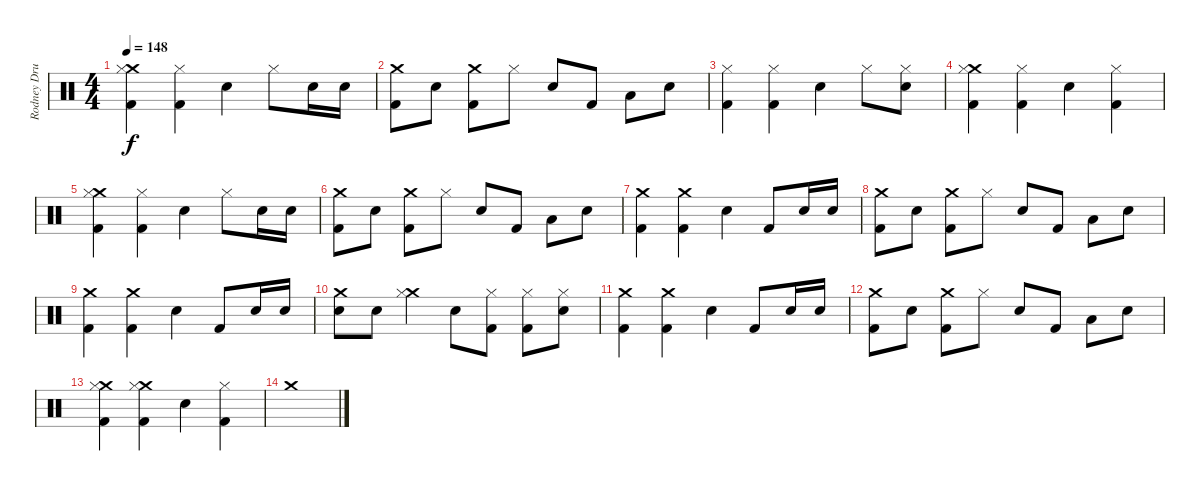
\track ("Rodney Drums" "Rodney Dru") {instrument percussion}
\staff {score}
\articulation defaults
\ts (4 4)
\tempo 148
\clef neutral
\ks c
("Crash medium (hit)" "Hi-Hat (closed)" "Kick (hit) 2").4{dy f} ("Hi-Hat (closed)" "Kick (hit) 2").4 "Electric Snare (hit)".4 "Hi-Hat (closed)".8 "Electric Snare (hit)".16 "Electric Snare (hit)".16 |
("Crash medium (hit)" "Kick (hit) 2").8 "Electric Snare (hit)".8 ("Crash medium (hit)" "Kick (hit) 2").8 "Hi-Hat (closed)".8 "Electric Snare (hit)".8 "Kick (hit) 2".8 "Low Tom (hit)".8 "Electric Snare (hit)".8 |
("Hi-Hat (closed)" "Kick (hit) 2").4 ("Hi-Hat (closed)" "Kick (hit) 2").4 "Electric Snare (hit)".4 "Hi-Hat (closed)".8 ("Hi-Hat (closed)" "Electric Snare (hit)").8 |
("Crash medium (hit)" "Hi-Hat (closed)" "Kick (hit) 2").4 ("Hi-Hat (closed)" "Kick (hit) 2").4 "Electric Snare (hit)".4 ("Hi-Hat (closed)" "Kick (hit) 2").4 |
("Crash medium (hit)" "Hi-Hat (closed)" "Kick (hit) 2").4 ("Hi-Hat (closed)" "Kick (hit) 2").4 "Electric Snare (hit)".4 "Hi-Hat (closed)".8 "Electric Snare (hit)".16 "Electric Snare (hit)".16 |
("Crash medium (hit)" "Kick (hit) 2").8 "Electric Snare (hit)".8 ("Crash medium (hit)" "Kick (hit) 2").8 "Hi-Hat (closed)".8 "Electric Snare (hit)".8 "Kick (hit) 2".8 "Low Tom (hit)".8 "Electric Snare (hit)".8 |
("Crash medium (hit)" "Kick (hit) 2").4 ("Crash medium (hit)" "Kick (hit) 2").4 "Electric Snare (hit)".4 "Kick (hit) 2".8 "Electric Snare (hit)".16 "Electric Snare (hit)".16 |
("Crash medium (hit)" "Kick (hit) 2").8 "Electric Snare (hit)".8 ("Crash medium (hit)" "Kick (hit) 2").8 "Hi-Hat (closed)".8 "Electric Snare (hit)".8 "Kick (hit) 2".8 "Low Tom (hit)".8 "Electric Snare (hit)".8 |
("Crash medium (hit)" "Kick (hit) 2").4 ("Crash medium (hit)" "Kick (hit) 2").4 "Electric Snare (hit)".4 "Kick (hit) 2".8 "Electric Snare (hit)".16 "Electric Snare (hit)".16 |
("Crash medium (hit)" "Electric Snare (hit)").8 "Electric Snare (hit)".8 ("Crash medium (hit)" "Hi-Hat (closed)").4 "Electric Snare (hit)".8 ("Hi-Hat (closed)" "Kick (hit) 2").8 ("Hi-Hat (closed)" "Kick (hit) 2").8 ("Hi-Hat (closed)" "Electric Snare (hit)").8 |
("Crash medium (hit)" "Kick (hit) 2").4 ("Crash medium (hit)" "Kick (hit) 2").4 "Electric Snare (hit)".4 "Kick (hit) 2".8 "Electric Snare (hit)".16 "Electric Snare (hit)".16 |
("Crash medium (hit)" "Kick (hit) 2").8 "Electric Snare (hit)".8 ("Crash medium (hit)" "Kick (hit) 2").8 "Hi-Hat (closed)".8 "Electric Snare (hit)".8 "Kick (hit) 2".8 "Low Tom (hit)".8 "Electric Snare (hit)".8 |
("Crash medium (hit)" "Hi-Hat (closed)" "Kick (hit) 2").4 ("Crash medium (hit)" "Hi-Hat (closed)" "Kick (hit) 2").4 "Electric Snare (hit)".4 ("Hi-Hat (closed)" "Kick (hit) 2").4 |
"Crash medium (hit)".1
